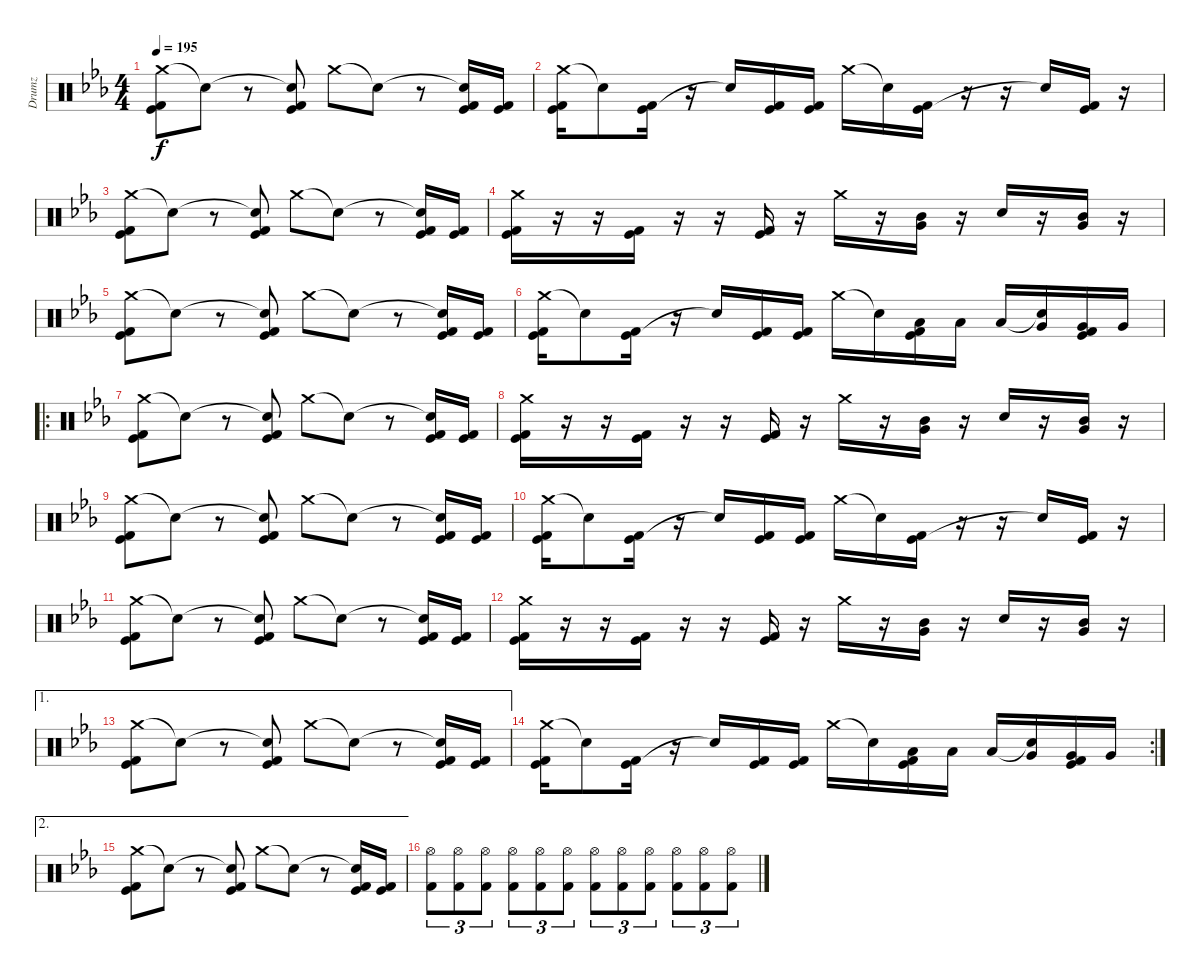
\track ("Drumz" "Drumz") {instrument percussion}
\staff {score}
\articulation defaults
\ts (4 4)
\tempo 195
\clef neutral
\ks cminor
("Crash medium (hit)" "Kick (hit)" "Kick (hit) 2").8{dy f} "Snare (hit)"{t}.8 r.8 ("Snare (hit)"{t} "Kick (hit)" "Kick (hit) 2").8 "Crash medium (hit)".8 "Snare (hit)"{t}.8 r.8 ("Snare (hit)"{t} "Kick (hit)" "Kick (hit) 2").16 ("Kick (hit)" "Kick (hit) 2").16 |
("Crash medium (hit)" "Kick (hit)" "Kick (hit) 2").16 "Snare (hit)"{t}.8 ("Kick (hit)" "Kick (hit) 2").16 r.16 "Snare (hit)"{t}.16 ("Kick (hit)" "Kick (hit) 2").16 ("Kick (hit)" "Kick (hit) 2").16 "Crash medium (hit)".16 "Snare (hit)"{t}.16 ("Kick (hit)" "Kick (hit) 2").16 r.16 r.16 "Snare (hit)"{t}.16 ("Kick (hit)" "Kick (hit) 2").16 r.16 |
("Crash medium (hit)" "Kick (hit)" "Kick (hit) 2").8 "Snare (hit)"{t}.8 r.8 ("Snare (hit)"{t} "Kick (hit)" "Kick (hit) 2").8 "Crash medium (hit)".8 "Snare (hit)"{t}.8 r.8 ("Snare (hit)"{t} "Kick (hit)" "Kick (hit) 2").16 ("Kick (hit)" "Kick (hit) 2").16 |
("Crash medium (hit)" "Kick (hit)" "Kick (hit) 2").16 r.16 r.16 ("Kick (hit)" "Kick (hit) 2").16 r.16 r.16 ("Kick (hit)" "Kick (hit) 2").16 r.16 "Crash medium (hit)".16 r.16 ("Mid Tom (hit)" "Very Low Tom (hit)").16 r.16 "Snare (hit) 2".16 r.16 ("Mid Tom (hit)" "Very Low Tom (hit)").16 r.16 |
("Crash medium (hit)" "Kick (hit)" "Kick (hit) 2").8 "Snare (hit)"{t}.8 r.8 ("Snare (hit)"{t} "Kick (hit)" "Kick (hit) 2").8 "Crash medium (hit)".8 "Snare (hit)"{t}.8 r.8 ("Snare (hit)"{t} "Kick (hit)" "Kick (hit) 2").16 ("Kick (hit)" "Kick (hit) 2").16 |
("Crash medium (hit)" "Kick (hit)" "Kick (hit) 2").16 "Snare (hit)"{t}.8 ("Kick (hit)" "Kick (hit) 2").16 r.16 "Snare (hit)"{t}.16 ("Kick (hit)" "Kick (hit) 2").16 ("Kick (hit)" "Kick (hit) 2").16 "Crash medium (hit)".16 "Snare (hit)"{t}.16 ("Low Tom (hit)" "Kick (hit)" "Kick (hit) 2").16 "Low Tom (hit)".16 "Low Tom (hit)".16 ("Snare (hit)"{t} "Very Low Tom (hit)").16 ("Very Low Tom (hit)" "Kick (hit)" "Kick (hit) 2").16 "Very Low Tom (hit)".16 |
\ro
("Crash medium (hit)" "Kick (hit)" "Kick (hit) 2").8 "Snare (hit)"{t}.8 r.8 ("Snare (hit)"{t} "Kick (hit)" "Kick (hit) 2").8 "Crash medium (hit)".8 "Snare (hit)"{t}.8 r.8 ("Snare (hit)"{t} "Kick (hit)" "Kick (hit) 2").16 ("Kick (hit)" "Kick (hit) 2").16 |
("Crash medium (hit)" "Kick (hit)" "Kick (hit) 2").16 r.16 r.16 ("Kick (hit)" "Kick (hit) 2").16 r.16 r.16 ("Kick (hit)" "Kick (hit) 2").16 r.16 "Crash medium (hit)".16 r.16 ("Mid Tom (hit)" "Very Low Tom (hit)").16 r.16 "Snare (hit) 2".16 r.16 ("Mid Tom (hit)" "Very Low Tom (hit)").16 r.16 |
("Crash medium (hit)" "Kick (hit)" "Kick (hit) 2").8 "Snare (hit)"{t}.8 r.8 ("Snare (hit)"{t} "Kick (hit)" "Kick (hit) 2").8 "Crash medium (hit)".8 "Snare (hit)"{t}.8 r.8 ("Snare (hit)"{t} "Kick (hit)" "Kick (hit) 2").16 ("Kick (hit)" "Kick (hit) 2").16 |
("Crash medium (hit)" "Kick (hit)" "Kick (hit) 2").16 "Snare (hit)"{t}.8 ("Kick (hit)" "Kick (hit) 2").16 r.16 "Snare (hit)"{t}.16 ("Kick (hit)" "Kick (hit) 2").16 ("Kick (hit)" "Kick (hit) 2").16 "Crash medium (hit)".16 "Snare (hit)"{t}.16 ("Kick (hit)" "Kick (hit) 2").16 r.16 r.16 "Snare (hit)"{t}.16 ("Kick (hit)" "Kick (hit) 2").16 r.16 |
("Crash medium (hit)" "Kick (hit)" "Kick (hit) 2").8 "Snare (hit)"{t}.8 r.8 ("Snare (hit)"{t} "Kick (hit)" "Kick (hit) 2").8 "Crash medium (hit)".8 "Snare (hit)"{t}.8 r.8 ("Snare (hit)"{t} "Kick (hit)" "Kick (hit) 2").16 ("Kick (hit)" "Kick (hit) 2").16 |
("Crash medium (hit)" "Kick (hit)" "Kick (hit) 2").16 r.16 r.16 ("Kick (hit)" "Kick (hit) 2").16 r.16 r.16 ("Kick (hit)" "Kick (hit) 2").16 r.16 "Crash medium (hit)".16 r.16 ("Mid Tom (hit)" "Very Low Tom (hit)").16 r.16 "Snare (hit) 2".16 r.16 ("Mid Tom (hit)" "Very Low Tom (hit)").16 r.16 |
\ae 1
("Crash medium (hit)" "Kick (hit)" "Kick (hit) 2").8 "Snare (hit)"{t}.8 r.8 ("Snare (hit)"{t} "Kick (hit)" "Kick (hit) 2").8 "Crash medium (hit)".8 "Snare (hit)"{t}.8 r.8 ("Snare (hit)"{t} "Kick (hit)" "Kick (hit) 2").16 ("Kick (hit)" "Kick (hit) 2").16 |
\rc 2
("Crash medium (hit)" "Kick (hit)" "Kick (hit) 2").16 "Snare (hit)"{t}.8 ("Kick (hit)" "Kick (hit) 2").16 r.16 "Snare (hit)"{t}.16 ("Kick (hit)" "Kick (hit) 2").16 ("Kick (hit)" "Kick (hit) 2").16 "Crash medium (hit)".16 "Snare (hit)"{t}.16 ("Low Tom (hit)" "Kick (hit)" "Kick (hit) 2").16 "Low Tom (hit)".16 "Low Tom (hit)".16 ("Snare (hit)"{t} "Very Low Tom (hit)").16 ("Very Low Tom (hit)" "Kick (hit)" "Kick (hit) 2").16 "Very Low Tom (hit)".16 |
\ae 2
("Crash medium (hit)" "Kick (hit)" "Kick (hit) 2").8 "Snare (hit)"{t}.8 r.8 ("Snare (hit)"{t} "Kick (hit)" "Kick (hit) 2").8 "Crash medium (hit)".8 "Snare (hit)"{t}.8 r.8 ("Snare (hit)"{t} "Kick (hit)" "Kick (hit) 2").16 ("Kick (hit)" "Kick (hit) 2").16 |
("Kick (hit) 2" "Hi-Hat (open)").8{tu (3 2)} ("Kick (hit) 2" "Hi-Hat (open)").8{tu (3 2)} ("Kick (hit) 2" "Hi-Hat (open)").8{tu (3 2)} ("Kick (hit) 2" "Hi-Hat (open)").8{tu (3 2)} ("Kick (hit) 2" "Hi-Hat (open)").8{tu (3 2)} ("Kick (hit) 2" "Hi-Hat (open)").8{tu (3 2)} ("Kick (hit) 2" "Hi-Hat (open)").8{tu (3 2)} ("Kick (hit) 2" "Hi-Hat (open)").8{tu (3 2)} ("Kick (hit) 2" "Hi-Hat (open)").8{tu (3 2)} ("Kick (hit) 2" "Hi-Hat (open)").8{tu (3 2)} ("Kick (hit) 2" "Hi-Hat (open)").8{tu (3 2)} ("Kick (hit) 2" "Hi-Hat (open)").8{tu (3 2)}
